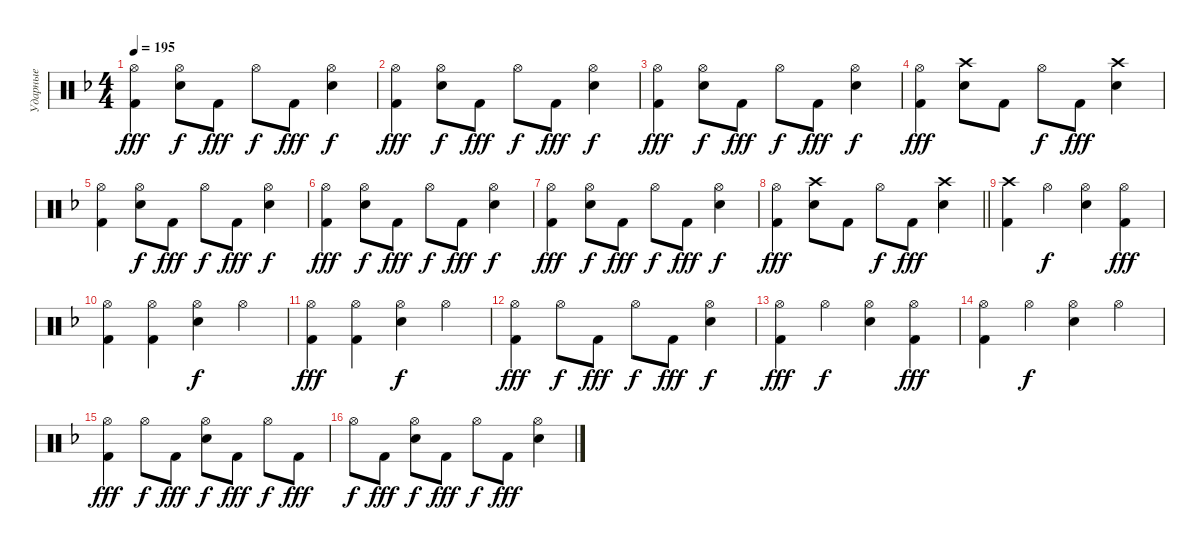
\track ("Ударные" "Ударные") {instrument percussion}
\staff {score}
\articulation defaults
\ts (4 4)
\tempo 195
\clef neutral
\ks f
("Kick (hit) 2" "Hi-Hat (open)").4{dy fff} ("Snare (hit) 2" "Hi-Hat (open)").8{dy f} "Kick (hit) 2".8{dy fff} "Hi-Hat (open)".8{dy f} "Kick (hit) 2".8{dy fff} ("Snare (hit) 2" "Hi-Hat (open)").4{dy f} |
("Kick (hit) 2" "Hi-Hat (open)").4{dy fff} ("Snare (hit) 2" "Hi-Hat (open)").8{dy f} "Kick (hit) 2".8{dy fff} "Hi-Hat (open)".8{dy f} "Kick (hit) 2".8{dy fff} ("Snare (hit) 2" "Hi-Hat (open)").4{dy f} |
("Kick (hit) 2" "Hi-Hat (open)").4{dy fff} ("Snare (hit) 2" "Hi-Hat (open)").8{dy f} "Kick (hit) 2".8{dy fff} "Hi-Hat (open)".8{dy f} "Kick (hit) 2".8{dy fff} ("Snare (hit) 2" "Hi-Hat (open)").4{dy f} |
("Kick (hit) 2" "Hi-Hat (open)").4{dy fff} ("Snare (hit) 2" "Crash high (hit)").8 "Kick (hit) 2".8 "Hi-Hat (open)".8{dy f} "Kick (hit) 2".8{dy fff} ("Snare (hit) 2" "Crash high (hit)").4 |
("Kick (hit) 2" "Hi-Hat (open)").4 ("Snare (hit) 2" "Hi-Hat (open)").8{dy f} "Kick (hit) 2".8{dy fff} "Hi-Hat (open)".8{dy f} "Kick (hit) 2".8{dy fff} ("Snare (hit) 2" "Hi-Hat (open)").4{dy f} |
("Kick (hit) 2" "Hi-Hat (open)").4{dy fff} ("Snare (hit) 2" "Hi-Hat (open)").8{dy f} "Kick (hit) 2".8{dy fff} "Hi-Hat (open)".8{dy f} "Kick (hit) 2".8{dy fff} ("Snare (hit) 2" "Hi-Hat (open)").4{dy f} |
("Kick (hit) 2" "Hi-Hat (open)").4{dy fff} ("Snare (hit) 2" "Hi-Hat (open)").8{dy f} "Kick (hit) 2".8{dy fff} "Hi-Hat (open)".8{dy f} "Kick (hit) 2".8{dy fff} ("Snare (hit) 2" "Hi-Hat (open)").4{dy f} |
\barLineRight lightlight
("Kick (hit) 2" "Hi-Hat (open)").4{dy fff} ("Snare (hit) 2" "Crash high (hit)").8 "Kick (hit) 2".8 "Hi-Hat (open)".8{dy f} "Kick (hit) 2".8{dy fff} ("Snare (hit) 2" "Crash high (hit)").4 |
("Kick (hit) 2" "Crash high (hit)").4 "Hi-Hat (open)".4{dy f} ("Snare (hit) 2" "Hi-Hat (open)").4 ("Kick (hit) 2" "Hi-Hat (open)").4{dy fff} |
("Kick (hit) 2" "Hi-Hat (open)").4 ("Kick (hit) 2" "Hi-Hat (open)").4 ("Snare (hit) 2" "Hi-Hat (open)").4{dy f} "Hi-Hat (open)".4 |
("Kick (hit) 2" "Hi-Hat (open)").4{dy fff} ("Kick (hit) 2" "Hi-Hat (open)").4 ("Snare (hit) 2" "Hi-Hat (open)").4{dy f} "Hi-Hat (open)".4 |
("Kick (hit) 2" "Hi-Hat (open)").4{dy fff} "Hi-Hat (open)".8{dy f} "Kick (hit) 2".8{dy fff} "Hi-Hat (open)".8{dy f} "Kick (hit) 2".8{dy fff} ("Snare (hit) 2" "Hi-Hat (open)").4{dy f} |
("Kick (hit) 2" "Hi-Hat (open)").4{dy fff} "Hi-Hat (open)".4{dy f} ("Snare (hit) 2" "Hi-Hat (open)").4 ("Kick (hit) 2" "Hi-Hat (open)").4{dy fff} |
("Kick (hit) 2" "Hi-Hat (open)").4 "Hi-Hat (open)".4{dy f} ("Snare (hit) 2" "Hi-Hat (open)").4 "Hi-Hat (open)".4 |
("Kick (hit) 2" "Hi-Hat (open)").4{dy fff} "Hi-Hat (open)".8{dy f} "Kick (hit) 2".8{dy fff} ("Snare (hit) 2" "Hi-Hat (open)").8{dy f} "Kick (hit) 2".8{dy fff} "Hi-Hat (open)".8{dy f} "Kick (hit) 2".8{dy fff} |
"Hi-Hat (open)".8{dy f} "Kick (hit) 2".8{dy fff} ("Snare (hit) 2" "Hi-Hat (open)").8{dy f} "Kick (hit) 2".8{dy fff} "Hi-Hat (open)".8{dy f} "Kick (hit) 2".8{dy fff} ("Snare (hit) 2" "Hi-Hat (open)").4
